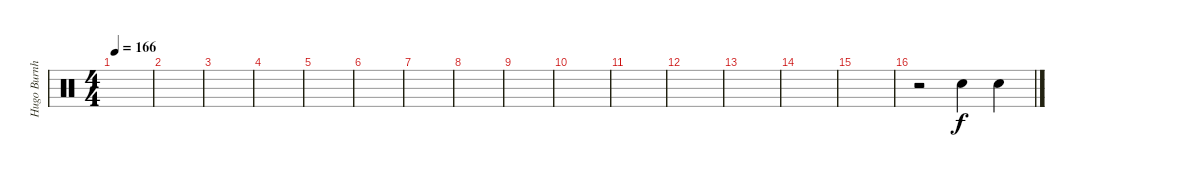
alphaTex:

\track ("Hugo Burnham" "Hugo Burnh") {instrument percussion}
\staff {score}
\articulation defaults
\ts (4 4)
\tempo 166
\clef neutral
\ks c
|
|
|
|
|
|
|
|
|
|
|
|
|
|
|
r.2 "Electric Snare (hit)".4 "Electric Snare (hit)".4
